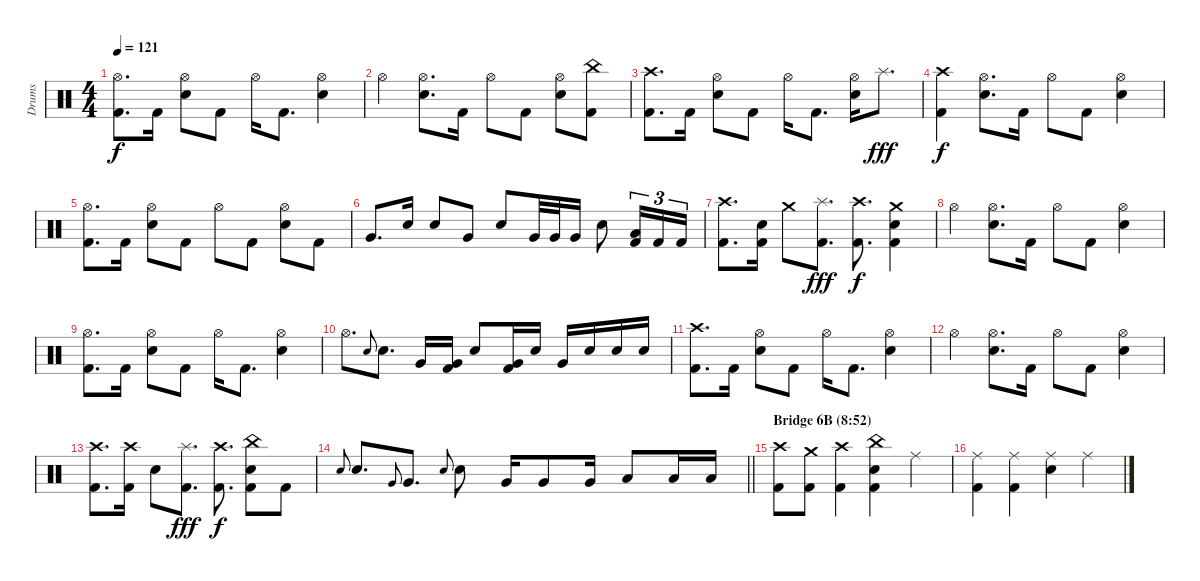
\track ("Drums" "Drums") {instrument percussion}
\staff {score}
\articulation defaults
\ts (4 4)
\tempo 121
\clef neutral
\ks c
("Hi-Hat (open)" "Kick (hit) 2").8{d dy f} "Kick (hit) 2".16 ("Hi-Hat (open)" "Electric Snare (hit)").8 "Kick (hit) 2".8 "Hi-Hat (open)".16 "Kick (hit) 2".8{d} ("Hi-Hat (open)" "Electric Snare (hit)").4 |
"Hi-Hat (open)".4 ("Hi-Hat (open)" "Electric Snare (hit)").8{d} "Kick (hit) 2".16 "Hi-Hat (open)".8 "Kick (hit) 2".8 ("Hi-Hat (open)" "Electric Snare (hit)").8 ("China (hit)" "Kick (hit) 2").8 |
("Crash high (hit)" "Kick (hit) 2").8{d} "Kick (hit) 2".16 ("Hi-Hat (open)" "Electric Snare (hit)").8 "Kick (hit) 2".8 "Hi-Hat (open)".16 "Kick (hit) 2".8{d} ("Hi-Hat (open)" "Electric Snare (hit)").16 "Splash (hit)".8{d dy fff} |
("Crash high (hit)" "Kick (hit) 2").4{dy f} ("Hi-Hat (open)" "Electric Snare (hit)").8{d} "Kick (hit) 2".16 "Hi-Hat (open)".8 "Kick (hit) 2".8 ("Hi-Hat (open)" "Electric Snare (hit)").4 |
("Hi-Hat (open)" "Kick (hit) 2").8{d} "Kick (hit) 2".16 ("Hi-Hat (open)" "Electric Snare (hit)").8 "Kick (hit) 2".8 "Hi-Hat (open)".8 "Kick (hit) 2".8 ("Hi-Hat (open)" "Electric Snare (hit)").8 "Kick (hit) 2".8 |
"Very Low Tom (hit)".8{d} "Electric Snare (hit)".16 "Electric Snare (hit)".8 "Very Low Tom (hit)".8 "Electric Snare (hit)".8 "Very Low Tom (hit)".32 "Very Low Tom (hit)".32 "Very Low Tom (hit)".16 "Electric Snare (hit)".8 ("Low Floor Tom (hit)" "Kick (hit) 2").16{tu (3 2)} "Kick (hit) 2".16{tu (3 2)} "Kick (hit) 2".16{tu (3 2)} |
("Crash high (hit)" "Kick (hit) 2").8{d} ("Electric Snare (hit)" "Kick (hit) 2").16 "Crash medium (hit)".8 ("Splash (hit)" "Kick (hit) 2").8{d dy fff} ("Crash high (hit)" "Kick (hit) 2").8{d dy f} ("Crash medium (hit)" "Electric Snare (hit)" "Kick (hit) 2").4 |
"Hi-Hat (open)".4 ("Hi-Hat (open)" "Electric Snare (hit)").8{d} "Kick (hit) 2".16 "Hi-Hat (open)".8 "Kick (hit) 2".8 ("Hi-Hat (open)" "Electric Snare (hit)").4 |
("Hi-Hat (open)" "Kick (hit) 2").8{d} "Kick (hit) 2".16 ("Hi-Hat (open)" "Electric Snare (hit)").8 "Kick (hit) 2".8 "Hi-Hat (open)".16 "Kick (hit) 2".8{d} ("Hi-Hat (open)" "Electric Snare (hit)").4 |
"Hi-Hat (open)".8{d} "Electric Snare (hit)".8{gr onbeat} "Electric Snare (hit)".8{d} "Very Low Tom (hit)".16 ("Very Low Tom (hit)" "Kick (hit) 2").16 "Electric Snare (hit)".8 ("Very Low Tom (hit)" "Kick (hit) 2").16 "Electric Snare (hit)".16 "Very Low Tom (hit)".16 "Electric Snare (hit)".16 "Electric Snare (hit)".16 "Electric Snare (hit)".16 |
("Crash high (hit)" "Kick (hit) 2").8{d} "Kick (hit) 2".16 ("Hi-Hat (open)" "Electric Snare (hit)").8 "Kick (hit) 2".8 "Hi-Hat (open)".16 "Kick (hit) 2".8{d} ("Hi-Hat (open)" "Electric Snare (hit)").4 |
"Hi-Hat (open)".4 ("Hi-Hat (open)" "Electric Snare (hit)").8{d} "Kick (hit) 2".16 "Hi-Hat (open)".8 "Kick (hit) 2".8 ("Hi-Hat (open)" "Electric Snare (hit)").4 |
("Crash high (hit)" "Kick (hit) 2").8{d} ("Crash high (hit)" "Kick (hit) 2").16 "Electric Snare (hit)".8 ("Splash (hit)" "Kick (hit) 2").8{d dy fff} ("Crash high (hit)" "Kick (hit) 2").8{d dy f} ("China (hit)" "Electric Snare (hit)" "Kick (hit) 2").8 "Kick (hit) 2".8 |
\barLineRight lightlight "Electric Snare (hit)".8{gr onbeat} "Electric Snare (hit)".8{d} "Very Low Tom (hit)".8{gr onbeat} "Very Low Tom (hit)".8{d} "Electric Snare (hit)".8{gr onbeat} "Electric Snare (hit)".8 "Very Low Tom (hit)".16 "Very Low Tom (hit)".8 "Very Low Tom (hit)".16 "Low Floor Tom (hit)".8 "Low Floor Tom (hit)".16 "Low Floor Tom (hit)".16
|
\section ("" "Bridge 6B (8:52)")
("Crash high (hit)" "Kick (hit) 2").8 ("Crash medium (hit)" "Kick (hit) 2").8 ("Crash high (hit)" "Kick (hit) 2").4 ("China (hit)" "Electric Snare (hit)" "Kick (hit) 2").4 "Ride (middle)".4 |
("Ride (middle)" "Kick (hit) 2").4 ("Ride (middle)" "Kick (hit) 2").4 ("Ride (middle)" "Electric Snare (hit)").4 "Ride (middle)".4
